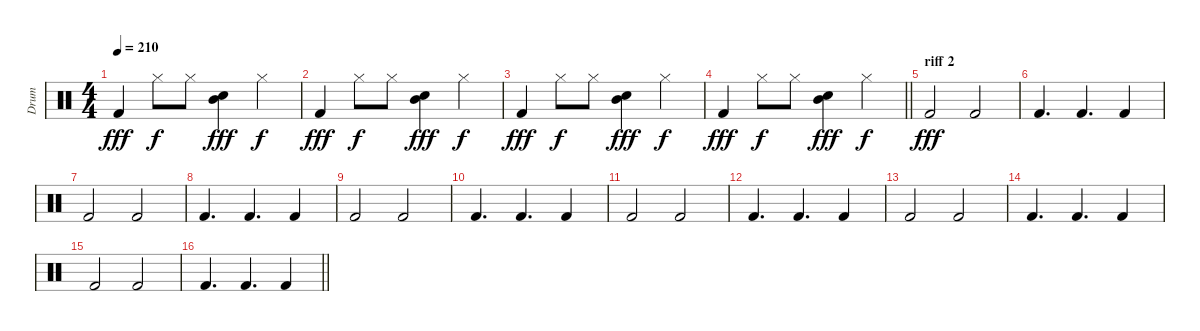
\track ("Drum" "Drum") {instrument percussion}
\staff {score}
\articulation defaults
\ts (4 4)
\tempo 210
\clef neutral
\ks c "Kick (hit) 2".4{dy fff} "Hi-Hat (closed)".8{dy f} "Hi-Hat (closed)".8
("Snare (hit) 2" "Mid Tom (hit)").4{dy fff} "Hi-Hat (closed)".4{dy f} |
"Kick (hit) 2".4{dy fff} "Hi-Hat (closed)".8{dy f} "Hi-Hat (closed)".8 ("Snare (hit) 2" "Mid Tom (hit)").4{dy fff} "Hi-Hat (closed)".4{dy f} |
"Kick (hit) 2".4{dy fff} "Hi-Hat (closed)".8{dy f} "Hi-Hat (closed)".8 ("Snare (hit) 2" "Mid Tom (hit)").4{dy fff} "Hi-Hat (closed)".4{dy f} |
\barLineRight lightlight "Kick (hit) 2".4{dy fff} "Hi-Hat (closed)".8{dy f} "Hi-Hat (closed)".8
("Snare (hit) 2" "Mid Tom (hit)").4{dy fff} "Hi-Hat (closed)".4{dy f} |
\section ("" "riff 2")
"Kick (hit) 2".2{dy fff} "Kick (hit) 2".2 |
"Kick (hit) 2".4{d} "Kick (hit) 2".4{d} "Kick (hit) 2".4 |
"Kick (hit) 2".2 "Kick (hit) 2".2 |
"Kick (hit) 2".4{d} "Kick (hit) 2".4{d} "Kick (hit) 2".4 |
"Kick (hit) 2".2 "Kick (hit) 2".2 |
"Kick (hit) 2".4{d} "Kick (hit) 2".4{d} "Kick (hit) 2".4 |
"Kick (hit) 2".2 "Kick (hit) 2".2 |
"Kick (hit) 2".4{d} "Kick (hit) 2".4{d} "Kick (hit) 2".4 |
"Kick (hit) 2".2 "Kick (hit) 2".2 |
"Kick (hit) 2".4{d} "Kick (hit) 2".4{d} "Kick (hit) 2".4 |
"Kick (hit) 2".2 "Kick (hit) 2".2 |
\barLineRight lightlight "Kick (hit) 2".4{d} "Kick (hit) 2".4{d} "Kick (hit) 2".4
